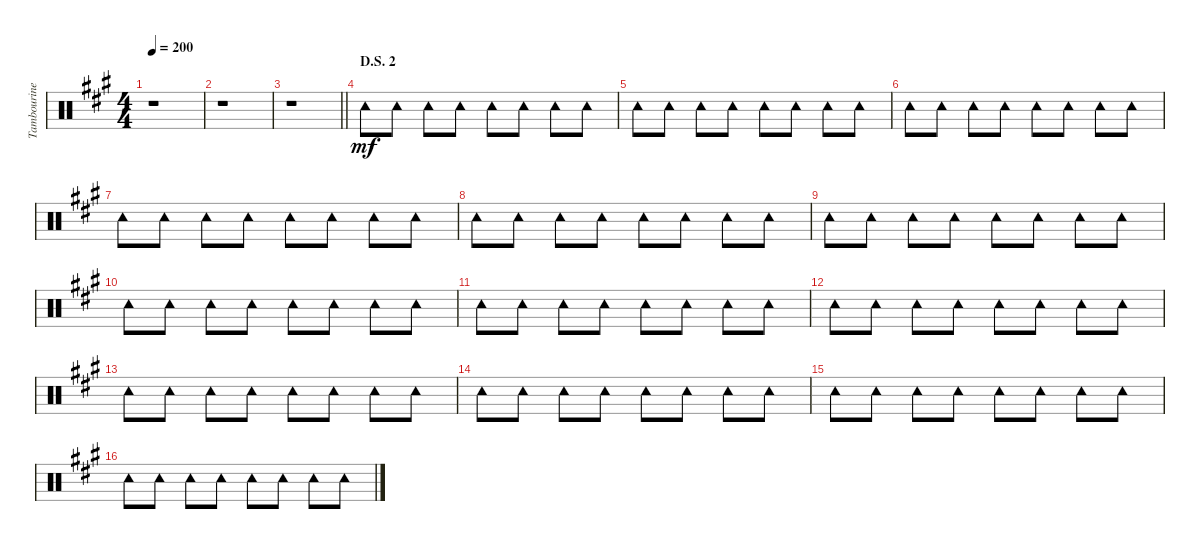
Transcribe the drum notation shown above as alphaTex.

\track ("Tambourine" "Tambourine") {instrument percussion}
\staff {score}
\articulation defaults
\ts (4 4)
\tempo 200
\clef neutral
\ks a
r.1{dy mf} |
r.1 |
\barLineRight lightlight
r.1 |
\section ("" "D.S. 2")
"Tambourine (hit)".8 "Tambourine (hit)".8 "Tambourine (hit)".8 "Tambourine (hit)".8 "Tambourine (hit)".8 "Tambourine (hit)".8 "Tambourine (hit)".8 "Tambourine (hit)".8 |
"Tambourine (hit)".8 "Tambourine (hit)".8 "Tambourine (hit)".8 "Tambourine (hit)".8 "Tambourine (hit)".8 "Tambourine (hit)".8 "Tambourine (hit)".8 "Tambourine (hit)".8 |
"Tambourine (hit)".8 "Tambourine (hit)".8 "Tambourine (hit)".8 "Tambourine (hit)".8 "Tambourine (hit)".8 "Tambourine (hit)".8 "Tambourine (hit)".8 "Tambourine (hit)".8 |
"Tambourine (hit)".8 "Tambourine (hit)".8 "Tambourine (hit)".8 "Tambourine (hit)".8 "Tambourine (hit)".8 "Tambourine (hit)".8 "Tambourine (hit)".8 "Tambourine (hit)".8 |
"Tambourine (hit)".8 "Tambourine (hit)".8 "Tambourine (hit)".8 "Tambourine (hit)".8 "Tambourine (hit)".8 "Tambourine (hit)".8 "Tambourine (hit)".8 "Tambourine (hit)".8 |
"Tambourine (hit)".8 "Tambourine (hit)".8 "Tambourine (hit)".8 "Tambourine (hit)".8 "Tambourine (hit)".8 "Tambourine (hit)".8 "Tambourine (hit)".8 "Tambourine (hit)".8 |
"Tambourine (hit)".8 "Tambourine (hit)".8 "Tambourine (hit)".8 "Tambourine (hit)".8 "Tambourine (hit)".8 "Tambourine (hit)".8 "Tambourine (hit)".8 "Tambourine (hit)".8 |
"Tambourine (hit)".8 "Tambourine (hit)".8 "Tambourine (hit)".8 "Tambourine (hit)".8 "Tambourine (hit)".8 "Tambourine (hit)".8 "Tambourine (hit)".8 "Tambourine (hit)".8 |
"Tambourine (hit)".8 "Tambourine (hit)".8 "Tambourine (hit)".8 "Tambourine (hit)".8 "Tambourine (hit)".8 "Tambourine (hit)".8 "Tambourine (hit)".8 "Tambourine (hit)".8 |
"Tambourine (hit)".8 "Tambourine (hit)".8 "Tambourine (hit)".8 "Tambourine (hit)".8 "Tambourine (hit)".8 "Tambourine (hit)".8 "Tambourine (hit)".8 "Tambourine (hit)".8 |
"Tambourine (hit)".8 "Tambourine (hit)".8 "Tambourine (hit)".8 "Tambourine (hit)".8 "Tambourine (hit)".8 "Tambourine (hit)".8 "Tambourine (hit)".8 "Tambourine (hit)".8 |
"Tambourine (hit)".8 "Tambourine (hit)".8 "Tambourine (hit)".8 "Tambourine (hit)".8 "Tambourine (hit)".8 "Tambourine (hit)".8 "Tambourine (hit)".8 "Tambourine (hit)".8 |
"Tambourine (hit)".8 "Tambourine (hit)".8 "Tambourine (hit)".8 "Tambourine (hit)".8 "Tambourine (hit)".8 "Tambourine (hit)".8 "Tambourine (hit)".8 "Tambourine (hit)".8
